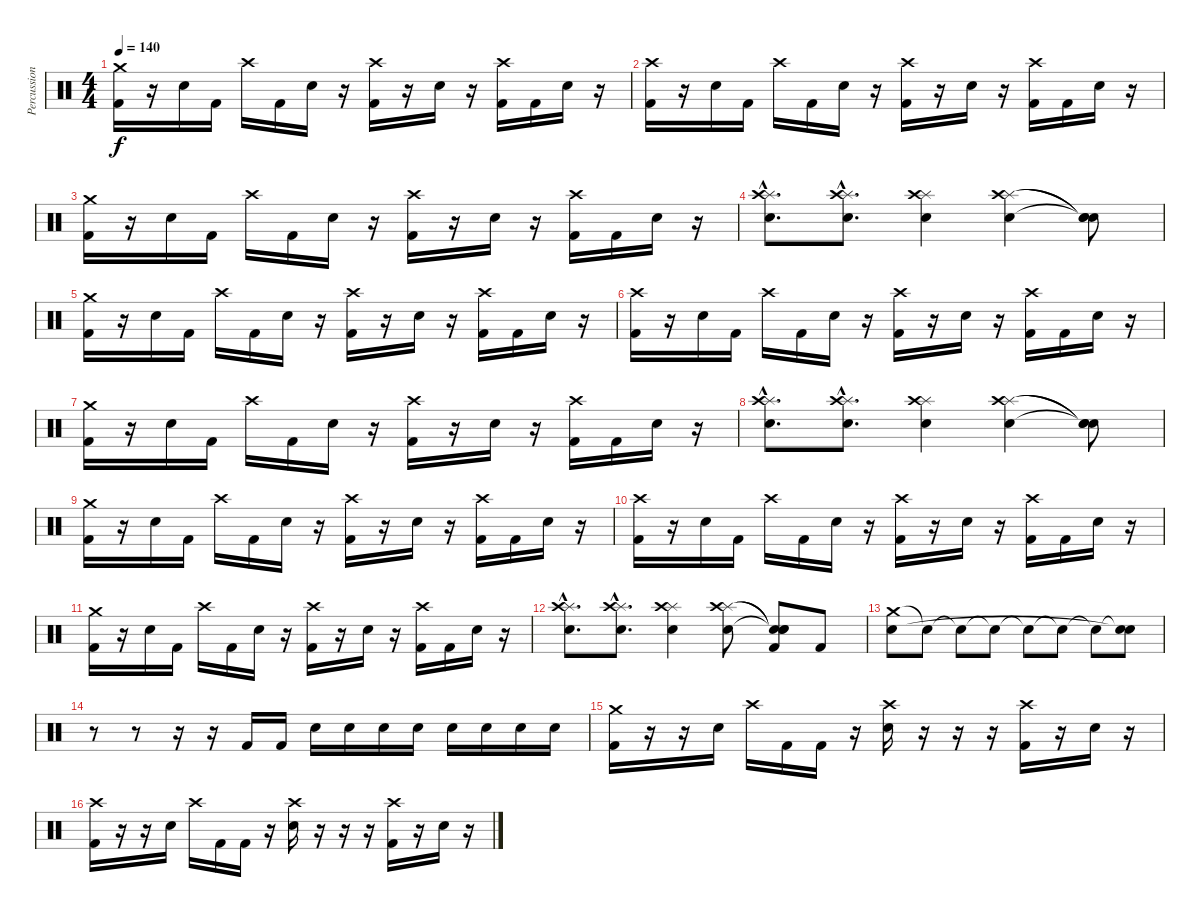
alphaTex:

\track ("Percussion" "Percussion") {instrument percussion}
\staff {score}
\articulation defaults
\ts (4 4)
\tempo 140
\clef neutral
\ks c
("Crash medium (hit)" "Kick (hit) 2").16{dy f} r.16 "Electric Snare (hit)".16 "Kick (hit) 2".16 "Crash high (hit)".16 "Kick (hit) 2".16 "Electric Snare (hit)".16 r.16 ("Crash high (hit)" "Kick (hit) 2").16 r.16 "Electric Snare (hit)".16 r.16 ("Crash high (hit)" "Kick (hit) 2").16 "Kick (hit) 2".16 "Electric Snare (hit)".16 r.16 |
("Crash high (hit)" "Kick (hit) 2").16 r.16 "Electric Snare (hit)".16 "Kick (hit) 2".16 "Crash high (hit)".16 "Kick (hit) 2".16 "Electric Snare (hit)".16 r.16 ("Crash high (hit)" "Kick (hit) 2").16 r.16 "Electric Snare (hit)".16 r.16 ("Crash high (hit)" "Kick (hit) 2").16 "Kick (hit) 2".16 "Electric Snare (hit)".16 r.16 |
("Crash medium (hit)" "Kick (hit) 2").16 r.16 "Electric Snare (hit)".16 "Kick (hit) 2".16 "Crash high (hit)".16 "Kick (hit) 2".16 "Electric Snare (hit)".16 r.16 ("Crash high (hit)" "Kick (hit) 2").16 r.16 "Electric Snare (hit)".16 r.16 ("Crash high (hit)" "Kick (hit) 2").16 "Kick (hit) 2".16 "Electric Snare (hit)".16 r.16 |
("Splash (hit)"{hac} "Crash high (hit)"{hac} "Electric Snare (hit)"{hac}).8{d} ("Splash (hit)"{hac} "Crash high (hit)"{hac} "Electric Snare (hit)"{hac}).8{d} ("Splash (hit)" "Crash high (hit)" "Electric Snare (hit)").4 ("Splash (hit)" "Crash high (hit)" "Electric Snare (hit)").4 ("Snare (hit)"{t} "Snare (hit)"{t} "Snare (hit)"{t}).8 |
("Crash medium (hit)" "Kick (hit) 2").16 r.16 "Electric Snare (hit)".16 "Kick (hit) 2".16 "Crash high (hit)".16 "Kick (hit) 2".16 "Electric Snare (hit)".16 r.16 ("Crash high (hit)" "Kick (hit) 2").16 r.16 "Electric Snare (hit)".16 r.16 ("Crash high (hit)" "Kick (hit) 2").16 "Kick (hit) 2".16 "Electric Snare (hit)".16 r.16 |
("Crash high (hit)" "Kick (hit) 2").16 r.16 "Electric Snare (hit)".16 "Kick (hit) 2".16 "Crash high (hit)".16 "Kick (hit) 2".16 "Electric Snare (hit)".16 r.16 ("Crash high (hit)" "Kick (hit) 2").16 r.16 "Electric Snare (hit)".16 r.16 ("Crash high (hit)" "Kick (hit) 2").16 "Kick (hit) 2".16 "Electric Snare (hit)".16 r.16 |
("Crash medium (hit)" "Kick (hit) 2").16 r.16 "Electric Snare (hit)".16 "Kick (hit) 2".16 "Crash high (hit)".16 "Kick (hit) 2".16 "Electric Snare (hit)".16 r.16 ("Crash high (hit)" "Kick (hit) 2").16 r.16 "Electric Snare (hit)".16 r.16 ("Crash high (hit)" "Kick (hit) 2").16 "Kick (hit) 2".16 "Electric Snare (hit)".16 r.16 |
("Splash (hit)"{hac} "Crash high (hit)"{hac} "Electric Snare (hit)"{hac}).8{d} ("Splash (hit)"{hac} "Crash high (hit)"{hac} "Electric Snare (hit)"{hac}).8{d} ("Splash (hit)" "Crash high (hit)" "Electric Snare (hit)").4 ("Splash (hit)" "Crash high (hit)" "Electric Snare (hit)").4 ("Snare (hit)"{t} "Snare (hit)"{t} "Snare (hit)"{t}).8 |
("Crash medium (hit)" "Kick (hit) 2").16 r.16 "Electric Snare (hit)".16 "Kick (hit) 2".16 "Crash high (hit)".16 "Kick (hit) 2".16 "Electric Snare (hit)".16 r.16 ("Crash high (hit)" "Kick (hit) 2").16 r.16 "Electric Snare (hit)".16 r.16 ("Crash high (hit)" "Kick (hit) 2").16 "Kick (hit) 2".16 "Electric Snare (hit)".16 r.16 |
("Crash high (hit)" "Kick (hit) 2").16 r.16 "Electric Snare (hit)".16 "Kick (hit) 2".16 "Crash high (hit)".16 "Kick (hit) 2".16 "Electric Snare (hit)".16 r.16 ("Crash high (hit)" "Kick (hit) 2").16 r.16 "Electric Snare (hit)".16 r.16 ("Crash high (hit)" "Kick (hit) 2").16 "Kick (hit) 2".16 "Electric Snare (hit)".16 r.16 |
("Crash medium (hit)" "Kick (hit) 2").16 r.16 "Electric Snare (hit)".16 "Kick (hit) 2".16 "Crash high (hit)".16 "Kick (hit) 2".16 "Electric Snare (hit)".16 r.16 ("Crash high (hit)" "Kick (hit) 2").16 r.16 "Electric Snare (hit)".16 r.16 ("Crash high (hit)" "Kick (hit) 2").16 "Kick (hit) 2".16 "Electric Snare (hit)".16 r.16 |
("Splash (hit)"{hac} "Crash high (hit)"{hac} "Electric Snare (hit)"{hac}).8{d} ("Splash (hit)"{hac} "Crash high (hit)"{hac} "Electric Snare (hit)"{hac}).8{d} ("Splash (hit)" "Crash high (hit)" "Electric Snare (hit)").4 ("Splash (hit)" "Crash high (hit)" "Electric Snare (hit)").8 ("Snare (hit)"{t} "Snare (hit)"{t} "Snare (hit)"{t} "Kick (hit) 2").8 "Kick (hit) 2".8 |
("Crash medium (hit)" "Electric Snare (hit)").8 "Snare (hit)"{t}.8 "Snare (hit)"{t}.8 "Snare (hit)"{t}.8 "Snare (hit)"{t}.8 "Snare (hit)"{t}.8 "Snare (hit)"{t}.8 ("Snare (hit)"{t} "Snare (hit)"{t}).8 |
r.8 r.8 r.16 r.16 "Kick (hit) 2".16 "Kick (hit) 2".16 "Electric Snare (hit)".16 "Electric Snare (hit)".16 "Electric Snare (hit)".16 "Electric Snare (hit)".16 "Electric Snare (hit)".16 "Electric Snare (hit)".16 "Electric Snare (hit)".16 "Electric Snare (hit)".16 |
("Crash medium (hit)" "Kick (hit) 2").16 r.16 r.16 "Electric Snare (hit)".16 "Crash high (hit)".16 "Kick (hit) 2".16 "Kick (hit) 2".16 r.16 ("Crash high (hit)" "Electric Snare (hit)").16 r.16 r.16 r.16 ("Crash high (hit)" "Kick (hit) 2").16 r.16 "Electric Snare (hit)".16 r.16 |
("Crash high (hit)" "Kick (hit) 2").16 r.16 r.16 "Electric Snare (hit)".16 "Crash high (hit)".16 "Kick (hit) 2".16 "Kick (hit) 2".16 r.16 ("Crash high (hit)" "Electric Snare (hit)").16 r.16 r.16 r.16 ("Crash high (hit)" "Kick (hit) 2").16 r.16 "Electric Snare (hit)".16 r.16
